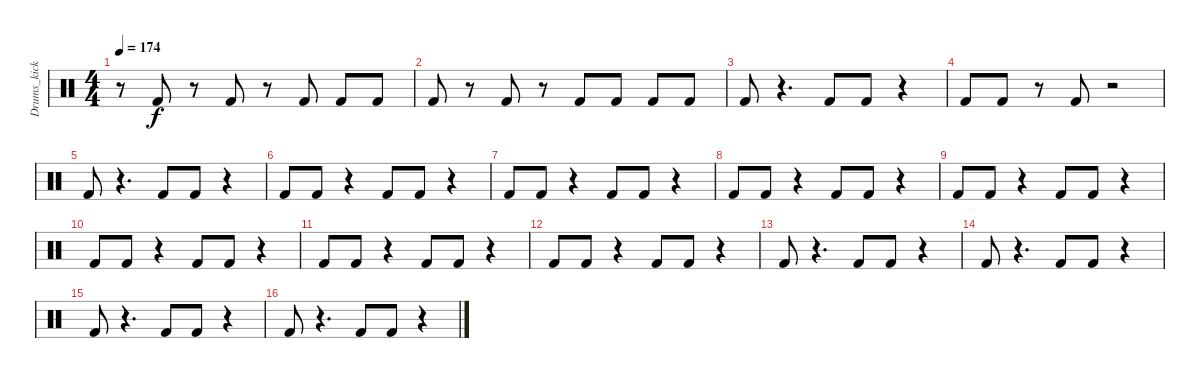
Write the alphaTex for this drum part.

\track ("Drums_kick" "Drums_kick") {instrument percussion}
\staff {score}
\articulation defaults
\ts (4 4)
\tempo 174
\clef neutral
\ks c
r.8{dy f} "Kick (hit) 2".8 r.8 "Kick (hit) 2".8 r.8 "Kick (hit) 2".8 "Kick (hit) 2".8 "Kick (hit) 2".8 |
"Kick (hit) 2".8 r.8 "Kick (hit) 2".8 r.8 "Kick (hit) 2".8 "Kick (hit) 2".8 "Kick (hit) 2".8 "Kick (hit) 2".8 |
"Kick (hit) 2".8 r.4{d} "Kick (hit) 2".8 "Kick (hit) 2".8 r.4 |
"Kick (hit) 2".8 "Kick (hit) 2".8 r.8 "Kick (hit) 2".8 r.2 |
"Kick (hit) 2".8 r.4{d} "Kick (hit) 2".8 "Kick (hit) 2".8 r.4 |
"Kick (hit) 2".8 "Kick (hit) 2".8 r.4 "Kick (hit) 2".8 "Kick (hit) 2".8 r.4 |
"Kick (hit) 2".8 "Kick (hit) 2".8 r.4 "Kick (hit) 2".8 "Kick (hit) 2".8 r.4 |
"Kick (hit) 2".8 "Kick (hit) 2".8 r.4 "Kick (hit) 2".8 "Kick (hit) 2".8 r.4 |
"Kick (hit) 2".8 "Kick (hit) 2".8 r.4 "Kick (hit) 2".8 "Kick (hit) 2".8 r.4 |
"Kick (hit) 2".8 "Kick (hit) 2".8 r.4 "Kick (hit) 2".8 "Kick (hit) 2".8 r.4 |
"Kick (hit) 2".8 "Kick (hit) 2".8 r.4 "Kick (hit) 2".8 "Kick (hit) 2".8 r.4 |
"Kick (hit) 2".8 "Kick (hit) 2".8 r.4 "Kick (hit) 2".8 "Kick (hit) 2".8 r.4 |
"Kick (hit) 2".8 r.4{d} "Kick (hit) 2".8 "Kick (hit) 2".8 r.4 |
"Kick (hit) 2".8 r.4{d} "Kick (hit) 2".8 "Kick (hit) 2".8 r.4 |
"Kick (hit) 2".8 r.4{d} "Kick (hit) 2".8 "Kick (hit) 2".8 r.4 |
"Kick (hit) 2".8 r.4{d} "Kick (hit) 2".8 "Kick (hit) 2".8 r.4
